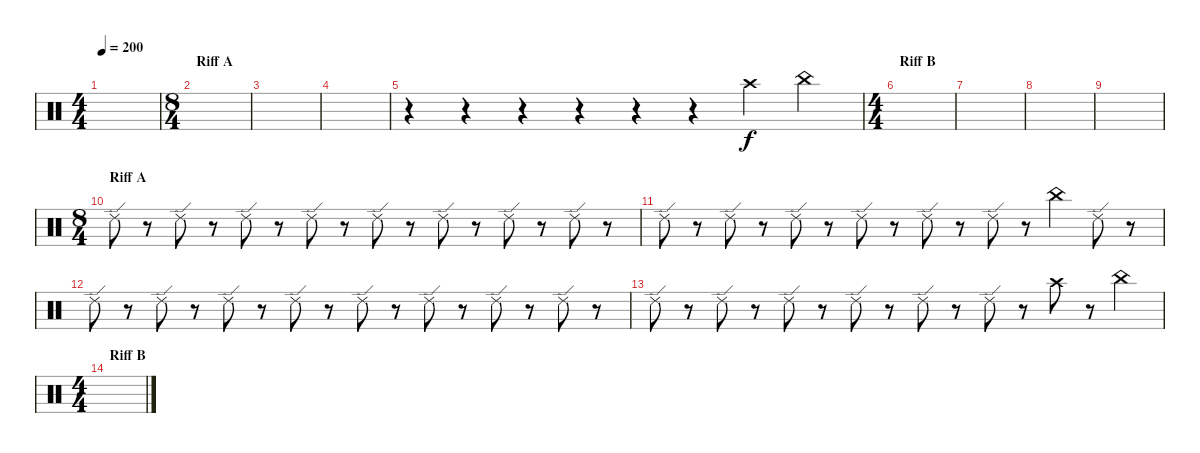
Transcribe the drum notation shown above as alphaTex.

\track "" {instrument percussion}
\staff {score}
\articulation defaults
\ts (4 4)
\tempo 200
\clef neutral
\ks c
|
\ts (8 4)
\section ("" "Riff A")
|
|
|
r.4 r.4 r.4 r.4 r.4 r.4 "Crash high (hit)".4 "China (hit)".4 |
\ts (4 4)
\section ("" "Riff B")
|
|
|
|
\ts (8 4)
\section ("" "Riff A")
"Ride (edge) 2".8 r.8 "Ride (edge) 2".8 r.8 "Ride (edge) 2".8 r.8 "Ride (edge) 2".8 r.8 "Ride (edge) 2".8 r.8 "Ride (edge) 2".8 r.8 "Ride (edge) 2".8 r.8 "Ride (edge) 2".8 r.8 |
"Ride (edge) 2".8 r.8 "Ride (edge) 2".8 r.8 "Ride (edge) 2".8 r.8 "Ride (edge) 2".8 r.8 "Ride (edge) 2".8 r.8 "Ride (edge) 2".8 r.8 "China (hit)".4 "Ride (edge) 2".8 r.8 |
"Ride (edge) 2".8 r.8 "Ride (edge) 2".8 r.8 "Ride (edge) 2".8 r.8 "Ride (edge) 2".8 r.8 "Ride (edge) 2".8 r.8 "Ride (edge) 2".8 r.8 "Ride (edge) 2".8 r.8 "Ride (edge) 2".8 r.8 |
"Ride (edge) 2".8 r.8 "Ride (edge) 2".8 r.8 "Ride (edge) 2".8 r.8 "Ride (edge) 2".8 r.8 "Ride (edge) 2".8 r.8 "Ride (edge) 2".8 r.8 "Crash high (hit)".8 r.8 "China (hit)".4 |
\ts (4 4)
\section ("" "Riff B")
